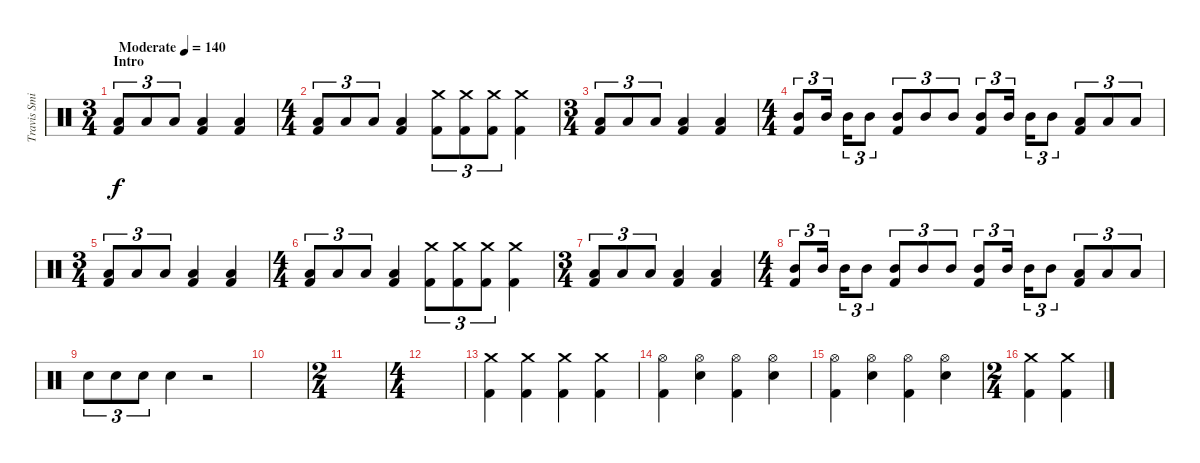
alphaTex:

\track ("Travis Smith" "Travis Smi") {instrument percussion}
\staff {score}
\articulation defaults
\ts (3 4)
\section ("" "Intro")
\tempo (140 "Moderate")
\clef neutral
\ks c
("Low Tom (hit)" "Kick (hit) 2").8{tu (3 2) dy f} "Low Tom (hit)".8{tu (3 2)} "Low Tom (hit)".8{tu (3 2)} ("Low Tom (hit)" "Kick (hit) 2").4 ("Low Tom (hit)" "Kick (hit) 2").4 |
\ts (4 4)
("Low Tom (hit)" "Kick (hit) 2").8{tu (3 2)} "Low Tom (hit)".8{tu (3 2)} "Low Tom (hit)".8{tu (3 2)} ("Low Tom (hit)" "Kick (hit) 2").4 ("Crash medium (hit)" "Kick (hit) 2").8{tu (3 2)} ("Crash medium (hit)" "Kick (hit) 2").8{tu (3 2)} ("Crash medium (hit)" "Kick (hit) 2").8{tu (3 2)} ("Crash medium (hit)" "Kick (hit) 2").4 |
\ts (3 4)
("Low Tom (hit)" "Kick (hit) 2").8{tu (3 2)} "Low Tom (hit)".8{tu (3 2)} "Low Tom (hit)".8{tu (3 2)} ("Low Tom (hit)" "Kick (hit) 2").4 ("Low Tom (hit)" "Kick (hit) 2").4 |
\ts (4 4)
("Mid Tom (hit)" "Kick (hit) 2").8{tu (3 2)} "Mid Tom (hit)".16{tu (3 2) beam splitsecondary} "Mid Tom (hit)".16{tu (3 2)} "Mid Tom (hit)".8{tu (3 2)} ("Mid Tom (hit)" "Kick (hit) 2").8{tu (3 2)} "Mid Tom (hit)".8{tu (3 2)} "Mid Tom (hit)".8{tu (3 2)} ("Mid Tom (hit)" "Kick (hit) 2").8{tu (3 2)} "Mid Tom (hit)".16{tu (3 2) beam splitsecondary} "Mid Tom (hit)".16{tu (3 2)} "Mid Tom (hit)".8{tu (3 2)} ("Low Tom (hit)" "Kick (hit) 2").8{tu (3 2)} "Low Tom (hit)".8{tu (3 2)} "Low Tom (hit)".8{tu (3 2)} |
\ts (3 4)
("Low Tom (hit)" "Kick (hit) 2").8{tu (3 2)} "Low Tom (hit)".8{tu (3 2)} "Low Tom (hit)".8{tu (3 2)} ("Low Tom (hit)" "Kick (hit) 2").4 ("Low Tom (hit)" "Kick (hit) 2").4 |
\ts (4 4)
("Low Tom (hit)" "Kick (hit) 2").8{tu (3 2)} "Low Tom (hit)".8{tu (3 2)} "Low Tom (hit)".8{tu (3 2)} ("Low Tom (hit)" "Kick (hit) 2").4 ("Crash medium (hit)" "Kick (hit) 2").8{tu (3 2)} ("Crash medium (hit)" "Kick (hit) 2").8{tu (3 2)} ("Crash medium (hit)" "Kick (hit) 2").8{tu (3 2)} ("Crash medium (hit)" "Kick (hit) 2").4 |
\ts (3 4)
("Low Tom (hit)" "Kick (hit) 2").8{tu (3 2)} "Low Tom (hit)".8{tu (3 2)} "Low Tom (hit)".8{tu (3 2)} ("Low Tom (hit)" "Kick (hit) 2").4 ("Low Tom (hit)" "Kick (hit) 2").4 |
\ts (4 4)
("Mid Tom (hit)" "Kick (hit) 2").8{tu (3 2)} "Mid Tom (hit)".16{tu (3 2) beam splitsecondary} "Mid Tom (hit)".16{tu (3 2)} "Mid Tom (hit)".8{tu (3 2)} ("Mid Tom (hit)" "Kick (hit) 2").8{tu (3 2)} "Mid Tom (hit)".8{tu (3 2)} "Mid Tom (hit)".8{tu (3 2)} ("Mid Tom (hit)" "Kick (hit) 2").8{tu (3 2)} "Mid Tom (hit)".16{tu (3 2) beam splitsecondary} "Mid Tom (hit)".16{tu (3 2)} "Mid Tom (hit)".8{tu (3 2)} ("Low Tom (hit)" "Kick (hit) 2").8{tu (3 2)} "Low Tom (hit)".8{tu (3 2)} "Low Tom (hit)".8{tu (3 2)} |
"Electric Snare (hit)".8{tu (3 2)} "Electric Snare (hit)".8{tu (3 2)} "Electric Snare (hit)".8{tu (3 2)} "Electric Snare (hit)".4 r.2 |
|
\ts (2 4)
|
\ts (4 4)
|
("Crash medium (hit)" "Kick (hit) 2").4 ("Crash medium (hit)" "Kick (hit) 2").4 ("Crash medium (hit)" "Kick (hit) 2").4 ("Crash medium (hit)" "Kick (hit) 2").4 |
("Hi-Hat (open)" "Kick (hit) 2").4 ("Hi-Hat (open)" "Electric Snare (hit)").4 ("Hi-Hat (open)" "Kick (hit) 2").4 ("Hi-Hat (open)" "Electric Snare (hit)").4 |
("Hi-Hat (open)" "Kick (hit) 2").4 ("Hi-Hat (open)" "Electric Snare (hit)").4 ("Hi-Hat (open)" "Kick (hit) 2").4 ("Hi-Hat (open)" "Electric Snare (hit)").4 |
\ts (2 4)
("Crash medium (hit)" "Kick (hit) 2").4 ("Crash medium (hit)" "Kick (hit) 2").4
